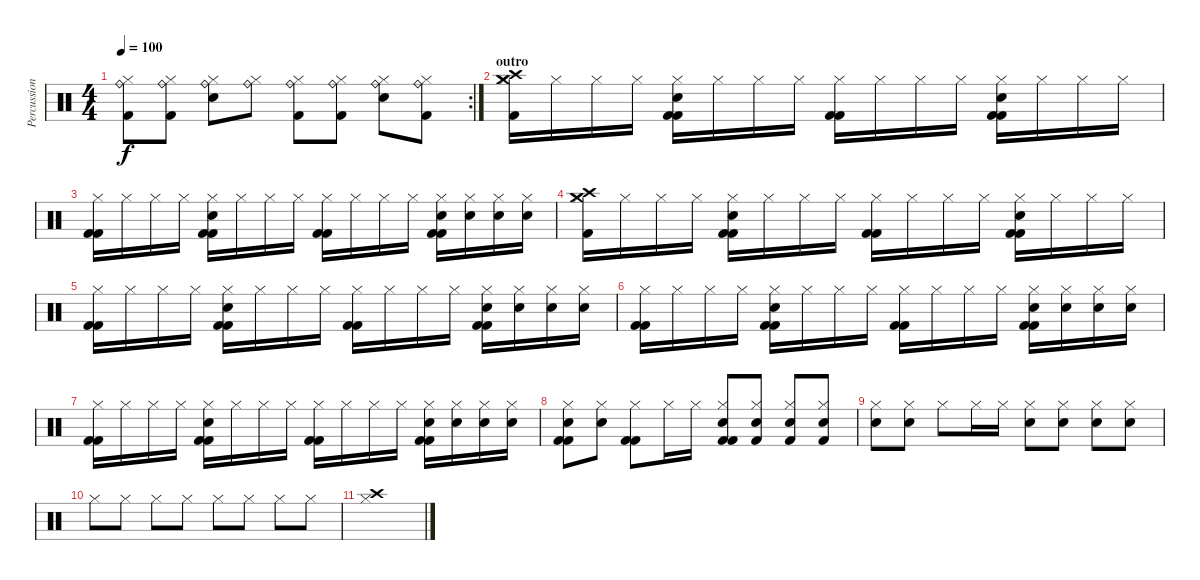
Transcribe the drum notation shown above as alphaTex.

\track ("Percussions" "Percussion") {instrument percussion}
\staff {score}
\articulation defaults
\rc 2
\ts (4 4)
\tempo 100
\clef neutral
\ks c
("Kick (hit) 2" "Hi-Hat (closed)" "Ride (bell)").8{dy f} ("Kick (hit) 2" "Hi-Hat (closed)" "Ride (bell)").8 ("Snare (hit) 2" "Hi-Hat (closed)" "Ride (bell)").8 ("Hi-Hat (closed)" "Ride (bell)").8 ("Kick (hit) 2" "Hi-Hat (closed)" "Ride (bell)").8 ("Kick (hit) 2" "Hi-Hat (closed)" "Ride (bell)").8 ("Snare (hit) 2" "Hi-Hat (closed)" "Ride (bell)").8 ("Kick (hit) 2" "Hi-Hat (closed)" "Ride (bell)").8 |
\section ("" "outro")
("Crash high (hit)" "Crash medium (hit)" "Kick (hit) 2" "Hi-Hat (closed)").16 "Hi-Hat (closed)".16 "Hi-Hat (closed)".16 "Hi-Hat (closed)".16 ("Kick (hit) 2" "Kick (hit) 2" "Electric Snare (hit)" "Hi-Hat (closed)").16 "Hi-Hat (closed)".16 "Hi-Hat (closed)".16 "Hi-Hat (closed)".16 ("Kick (hit) 2" "Kick (hit) 2" "Hi-Hat (closed)").16 "Hi-Hat (closed)".16 "Hi-Hat (closed)".16 "Hi-Hat (closed)".16 ("Kick (hit) 2" "Kick (hit) 2" "Electric Snare (hit)" "Hi-Hat (closed)").16 "Hi-Hat (closed)".16 "Hi-Hat (closed)".16 "Hi-Hat (closed)".16 |
("Kick (hit) 2" "Kick (hit) 2" "Hi-Hat (closed)").16 "Hi-Hat (closed)".16 "Hi-Hat (closed)".16 "Hi-Hat (closed)".16 ("Kick (hit) 2" "Kick (hit) 2" "Electric Snare (hit)" "Hi-Hat (closed)").16 "Hi-Hat (closed)".16 "Hi-Hat (closed)".16 "Hi-Hat (closed)".16 ("Kick (hit) 2" "Kick (hit) 2" "Hi-Hat (closed)").16 "Hi-Hat (closed)".16 "Hi-Hat (closed)".16 "Hi-Hat (closed)".16 ("Kick (hit) 2" "Kick (hit) 2" "Electric Snare (hit)" "Hi-Hat (closed)").16 ("Electric Snare (hit)" "Hi-Hat (closed)").16 ("Electric Snare (hit)" "Hi-Hat (closed)").16 ("Electric Snare (hit)" "Hi-Hat (closed)").16 |
("Crash high (hit)" "Crash medium (hit)" "Kick (hit) 2" "Hi-Hat (closed)").16 "Hi-Hat (closed)".16 "Hi-Hat (closed)".16 "Hi-Hat (closed)".16 ("Kick (hit) 2" "Kick (hit) 2" "Electric Snare (hit)" "Hi-Hat (closed)").16 "Hi-Hat (closed)".16 "Hi-Hat (closed)".16 "Hi-Hat (closed)".16 ("Kick (hit) 2" "Kick (hit) 2" "Hi-Hat (closed)").16 "Hi-Hat (closed)".16 "Hi-Hat (closed)".16 "Hi-Hat (closed)".16 ("Kick (hit) 2" "Kick (hit) 2" "Electric Snare (hit)" "Hi-Hat (closed)").16 "Hi-Hat (closed)".16 "Hi-Hat (closed)".16 "Hi-Hat (closed)".16 |
("Kick (hit) 2" "Kick (hit) 2" "Hi-Hat (closed)").16 "Hi-Hat (closed)".16 "Hi-Hat (closed)".16 "Hi-Hat (closed)".16 ("Kick (hit) 2" "Kick (hit) 2" "Electric Snare (hit)" "Hi-Hat (closed)").16 "Hi-Hat (closed)".16 "Hi-Hat (closed)".16 "Hi-Hat (closed)".16 ("Kick (hit) 2" "Kick (hit) 2" "Hi-Hat (closed)").16 "Hi-Hat (closed)".16 "Hi-Hat (closed)".16 "Hi-Hat (closed)".16 ("Kick (hit) 2" "Kick (hit) 2" "Electric Snare (hit)" "Hi-Hat (closed)").16 ("Electric Snare (hit)" "Hi-Hat (closed)").16 ("Electric Snare (hit)" "Hi-Hat (closed)").16 ("Electric Snare (hit)" "Hi-Hat (closed)").16 |
("Kick (hit) 2" "Kick (hit) 2" "Hi-Hat (closed)").16 "Hi-Hat (closed)".16 "Hi-Hat (closed)".16 "Hi-Hat (closed)".16 ("Kick (hit) 2" "Kick (hit) 2" "Electric Snare (hit)" "Hi-Hat (closed)").16 "Hi-Hat (closed)".16 "Hi-Hat (closed)".16 "Hi-Hat (closed)".16 ("Kick (hit) 2" "Kick (hit) 2" "Hi-Hat (closed)").16 "Hi-Hat (closed)".16 "Hi-Hat (closed)".16 "Hi-Hat (closed)".16 ("Kick (hit) 2" "Kick (hit) 2" "Electric Snare (hit)" "Hi-Hat (closed)").16 ("Electric Snare (hit)" "Hi-Hat (closed)").16 ("Electric Snare (hit)" "Hi-Hat (closed)").16 ("Electric Snare (hit)" "Hi-Hat (closed)").16 |
("Kick (hit) 2" "Kick (hit) 2" "Hi-Hat (closed)").16 "Hi-Hat (closed)".16 "Hi-Hat (closed)".16 "Hi-Hat (closed)".16 ("Kick (hit) 2" "Kick (hit) 2" "Electric Snare (hit)" "Hi-Hat (closed)").16 "Hi-Hat (closed)".16 "Hi-Hat (closed)".16 "Hi-Hat (closed)".16 ("Kick (hit) 2" "Kick (hit) 2" "Hi-Hat (closed)").16 "Hi-Hat (closed)".16 "Hi-Hat (closed)".16 "Hi-Hat (closed)".16 ("Kick (hit) 2" "Kick (hit) 2" "Electric Snare (hit)" "Hi-Hat (closed)").16 ("Electric Snare (hit)" "Hi-Hat (closed)").16 ("Electric Snare (hit)" "Hi-Hat (closed)").16 ("Electric Snare (hit)" "Hi-Hat (closed)").16 |
("Kick (hit) 2" "Kick (hit) 2" "Electric Snare (hit)" "Hi-Hat (closed)").8 ("Electric Snare (hit)" "Hi-Hat (closed)").8 ("Kick (hit) 2" "Kick (hit) 2" "Hi-Hat (closed)").8 "Hi-Hat (closed)".16 "Hi-Hat (closed)".16 ("Kick (hit) 2" "Kick (hit) 2" "Electric Snare (hit)" "Hi-Hat (closed)").8 ("Kick (hit) 2" "Electric Snare (hit)" "Hi-Hat (closed)").8 ("Kick (hit) 2" "Electric Snare (hit)" "Hi-Hat (closed)").8 ("Kick (hit) 2" "Electric Snare (hit)" "Hi-Hat (closed)").8 |
("Electric Snare (hit)" "Hi-Hat (closed)").8 ("Electric Snare (hit)" "Hi-Hat (closed)").8 "Hi-Hat (closed)".8 "Hi-Hat (closed)".16 "Hi-Hat (closed)".16 ("Electric Snare (hit)" "Hi-Hat (closed)").8 ("Electric Snare (hit)" "Hi-Hat (closed)").8 ("Electric Snare (hit)" "Hi-Hat (closed)").8 ("Electric Snare (hit)" "Hi-Hat (closed)").8 |
"Hi-Hat (closed)".8 "Hi-Hat (closed)".8 "Hi-Hat (closed)".8 "Hi-Hat (closed)".8 "Hi-Hat (closed)".8 "Hi-Hat (closed)".8 "Hi-Hat (closed)".8 "Hi-Hat (closed)".8 |
("Crash high (hit)" "Hi-Hat (closed)").1
